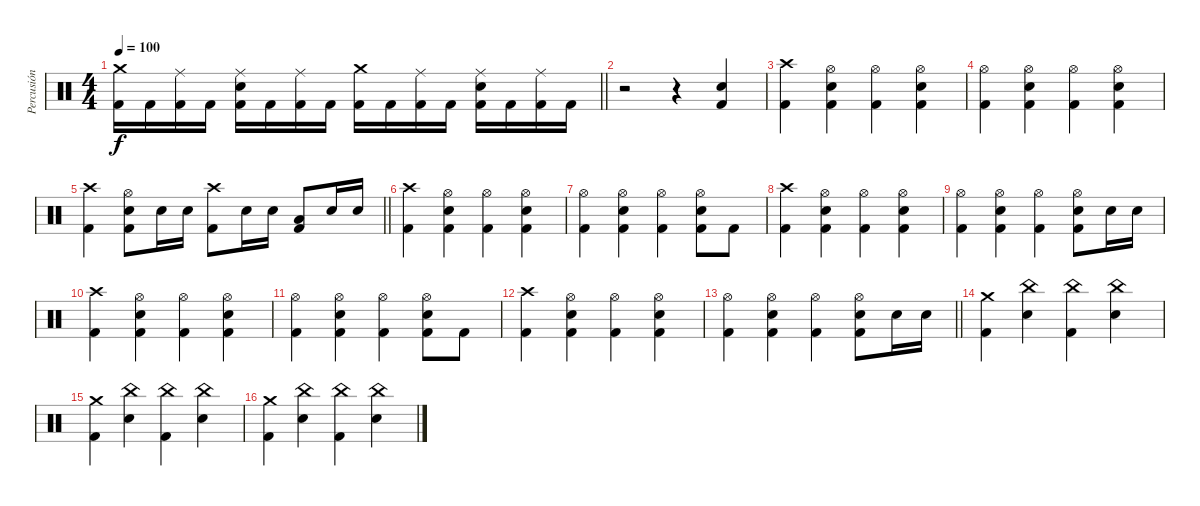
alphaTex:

\track ("Percusión" "Percusión") {instrument percussion}
\staff {score}
\articulation defaults
\ts (4 4)
\tempo 100
\clef neutral
\barLineRight lightlight
\ks c
("Crash medium (hit)" "Kick (hit) 2").16{dy f} "Kick (hit) 2".16 ("Ride (middle)" "Kick (hit) 2").16 "Kick (hit) 2".16 ("Ride (middle)" "Snare (hit) 2" "Kick (hit) 2").16 "Kick (hit) 2".16 ("Ride (middle)" "Kick (hit) 2").16 "Kick (hit) 2".16 ("Crash medium (hit)" "Kick (hit) 2").16 "Kick (hit) 2".16 ("Ride (middle)" "Kick (hit) 2").16 "Kick (hit) 2".16 ("Ride (middle)" "Snare (hit) 2" "Kick (hit) 2").16 "Kick (hit) 2".16 ("Ride (middle)" "Kick (hit) 2").16 "Kick (hit) 2".16 |
r.2 r.4 ("Snare (hit) 2" "Kick (hit) 2").4 |
("Crash high (hit)" "Kick (hit) 2").4 ("Hi-Hat (open)" "Snare (hit) 2" "Kick (hit) 2").4 ("Hi-Hat (open)" "Kick (hit) 2").4 ("Hi-Hat (open)" "Snare (hit) 2" "Kick (hit) 2").4 |
("Hi-Hat (open)" "Kick (hit) 2").4 ("Hi-Hat (open)" "Snare (hit) 2" "Kick (hit) 2").4 ("Hi-Hat (open)" "Kick (hit) 2").4 ("Hi-Hat (open)" "Snare (hit) 2" "Kick (hit) 2").4 |
\barLineRight lightlight
("Crash high (hit)" "Kick (hit) 2").4 ("Hi-Hat (open)" "Snare (hit) 2" "Kick (hit) 2").8 "Snare (hit) 2".16 "Snare (hit) 2".16 ("Crash high (hit)" "Kick (hit) 2").8 "Snare (hit) 2".16 "Snare (hit) 2".16 ("Low Floor Tom (hit)" "Kick (hit) 2").8 "Snare (hit) 2".16 "Snare (hit) 2".16 |
("Crash high (hit)" "Kick (hit) 2").4 ("Hi-Hat (open)" "Snare (hit) 2" "Kick (hit) 2").4 ("Hi-Hat (open)" "Kick (hit) 2").4 ("Hi-Hat (open)" "Snare (hit) 2" "Kick (hit) 2").4 |
("Hi-Hat (open)" "Kick (hit) 2").4 ("Hi-Hat (open)" "Snare (hit) 2" "Kick (hit) 2").4 ("Hi-Hat (open)" "Kick (hit) 2").4 ("Hi-Hat (open)" "Snare (hit) 2" "Kick (hit) 2").8 "Kick (hit) 2".8 |
("Crash high (hit)" "Kick (hit) 2").4 ("Hi-Hat (open)" "Snare (hit) 2" "Kick (hit) 2").4 ("Hi-Hat (open)" "Kick (hit) 2").4 ("Hi-Hat (open)" "Snare (hit) 2" "Kick (hit) 2").4 |
("Hi-Hat (open)" "Kick (hit) 2").4 ("Hi-Hat (open)" "Snare (hit) 2" "Kick (hit) 2").4 ("Hi-Hat (open)" "Kick (hit) 2").4 ("Hi-Hat (open)" "Snare (hit) 2" "Kick (hit) 2").8 "Snare (hit) 2".16 "Snare (hit) 2".16 |
("Crash high (hit)" "Kick (hit) 2").4 ("Hi-Hat (open)" "Snare (hit) 2" "Kick (hit) 2").4 ("Hi-Hat (open)" "Kick (hit) 2").4 ("Hi-Hat (open)" "Snare (hit) 2" "Kick (hit) 2").4 |
("Hi-Hat (open)" "Kick (hit) 2").4 ("Hi-Hat (open)" "Snare (hit) 2" "Kick (hit) 2").4 ("Hi-Hat (open)" "Kick (hit) 2").4 ("Hi-Hat (open)" "Snare (hit) 2" "Kick (hit) 2").8 "Kick (hit) 2".8 |
("Crash high (hit)" "Kick (hit) 2").4 ("Hi-Hat (open)" "Snare (hit) 2" "Kick (hit) 2").4 ("Hi-Hat (open)" "Kick (hit) 2").4 ("Hi-Hat (open)" "Snare (hit) 2" "Kick (hit) 2").4 |
\barLineRight lightlight
("Hi-Hat (open)" "Kick (hit) 2").4 ("Hi-Hat (open)" "Snare (hit) 2" "Kick (hit) 2").4 ("Hi-Hat (open)" "Kick (hit) 2").4 ("Hi-Hat (open)" "Snare (hit) 2" "Kick (hit) 2").8 "Snare (hit) 2".16 "Snare (hit) 2".16 |
("Crash medium (hit)" "Kick (hit) 2").4 ("China (hit)" "Snare (hit) 2").4 ("China (hit)" "Kick (hit) 2").4 ("China (hit)" "Snare (hit) 2").4 |
("Crash medium (hit)" "Kick (hit) 2").4 ("China (hit)" "Snare (hit) 2").4 ("China (hit)" "Kick (hit) 2").4 ("China (hit)" "Snare (hit) 2").4 |
("Crash medium (hit)" "Kick (hit) 2").4 ("China (hit)" "Snare (hit) 2").4 ("China (hit)" "Kick (hit) 2").4 ("China (hit)" "Snare (hit) 2").4
